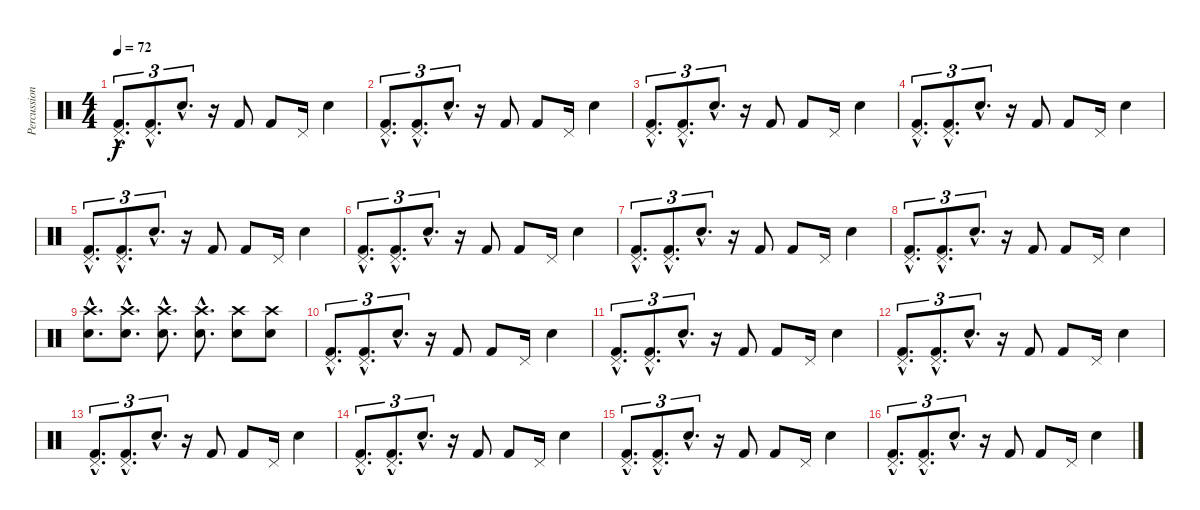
\track ("Percussion" "Percussion") {instrument percussion}
\staff {score}
\articulation defaults
\ts (4 4)
\tempo 72
\clef neutral
\ks c
("Kick (hit) 2"{hac} "Pedal Hi-Hat (hit)"{hac}).8{d tu (3 2) dy f} ("Kick (hit) 2"{hac} "Pedal Hi-Hat (hit)"{hac}).8{d tu (3 2)} "Snare (hit) 2"{hac}.8{d tu (3 2)} r.16 "Kick (hit) 2".8 "Kick (hit) 2".8 "Pedal Hi-Hat (hit)".16 "Snare (hit) 2".4 |
("Kick (hit) 2"{hac} "Pedal Hi-Hat (hit)"{hac}).8{d tu (3 2)} ("Kick (hit) 2"{hac} "Pedal Hi-Hat (hit)"{hac}).8{d tu (3 2)} "Snare (hit) 2"{hac}.8{d tu (3 2)} r.16 "Kick (hit) 2".8 "Kick (hit) 2".8 "Pedal Hi-Hat (hit)".16 "Snare (hit) 2".4 |
("Kick (hit) 2"{hac} "Pedal Hi-Hat (hit)"{hac}).8{d tu (3 2)} ("Kick (hit) 2"{hac} "Pedal Hi-Hat (hit)"{hac}).8{d tu (3 2)} "Snare (hit) 2"{hac}.8{d tu (3 2)} r.16 "Kick (hit) 2".8 "Kick (hit) 2".8 "Pedal Hi-Hat (hit)".16 "Snare (hit) 2".4 |
("Kick (hit) 2"{hac} "Pedal Hi-Hat (hit)"{hac}).8{d tu (3 2)} ("Kick (hit) 2"{hac} "Pedal Hi-Hat (hit)"{hac}).8{d tu (3 2)} "Snare (hit) 2"{hac}.8{d tu (3 2)} r.16 "Kick (hit) 2".8 "Kick (hit) 2".8 "Pedal Hi-Hat (hit)".16 "Snare (hit) 2".4 |
("Kick (hit) 2"{hac} "Pedal Hi-Hat (hit)"{hac}).8{d tu (3 2)} ("Kick (hit) 2"{hac} "Pedal Hi-Hat (hit)"{hac}).8{d tu (3 2)} "Snare (hit) 2"{hac}.8{d tu (3 2)} r.16 "Kick (hit) 2".8 "Kick (hit) 2".8 "Pedal Hi-Hat (hit)".16 "Snare (hit) 2".4 |
("Kick (hit) 2"{hac} "Pedal Hi-Hat (hit)"{hac}).8{d tu (3 2)} ("Kick (hit) 2"{hac} "Pedal Hi-Hat (hit)"{hac}).8{d tu (3 2)} "Snare (hit) 2"{hac}.8{d tu (3 2)} r.16 "Kick (hit) 2".8 "Kick (hit) 2".8 "Pedal Hi-Hat (hit)".16 "Snare (hit) 2".4 |
("Kick (hit) 2"{hac} "Pedal Hi-Hat (hit)"{hac}).8{d tu (3 2)} ("Kick (hit) 2"{hac} "Pedal Hi-Hat (hit)"{hac}).8{d tu (3 2)} "Snare (hit) 2"{hac}.8{d tu (3 2)} r.16 "Kick (hit) 2".8 "Kick (hit) 2".8 "Pedal Hi-Hat (hit)".16 "Snare (hit) 2".4 |
("Kick (hit) 2"{hac} "Pedal Hi-Hat (hit)"{hac}).8{d tu (3 2)} ("Kick (hit) 2"{hac} "Pedal Hi-Hat (hit)"{hac}).8{d tu (3 2)} "Snare (hit) 2"{hac}.8{d tu (3 2)} r.16 "Kick (hit) 2".8 "Kick (hit) 2".8 "Pedal Hi-Hat (hit)".16 "Snare (hit) 2".4 |
("Crash high (hit)"{hac} "Snare (hit) 2"{hac}).8{d} ("Crash high (hit)"{hac} "Snare (hit) 2"{hac}).8{d} ("Crash high (hit)"{hac} "Snare (hit) 2"{hac}).8{d} ("Crash high (hit)"{hac} "Snare (hit) 2"{hac}).8{d} ("Crash high (hit)" "Snare (hit) 2").8 ("Crash high (hit)" "Snare (hit) 2").8 |
("Kick (hit) 2"{hac} "Pedal Hi-Hat (hit)"{hac}).8{d tu (3 2)} ("Kick (hit) 2"{hac} "Pedal Hi-Hat (hit)"{hac}).8{d tu (3 2)} "Snare (hit) 2"{hac}.8{d tu (3 2)} r.16 "Kick (hit) 2".8 "Kick (hit) 2".8 "Pedal Hi-Hat (hit)".16 "Snare (hit) 2".4 |
("Kick (hit) 2"{hac} "Pedal Hi-Hat (hit)"{hac}).8{d tu (3 2)} ("Kick (hit) 2"{hac} "Pedal Hi-Hat (hit)"{hac}).8{d tu (3 2)} "Snare (hit) 2"{hac}.8{d tu (3 2)} r.16 "Kick (hit) 2".8 "Kick (hit) 2".8 "Pedal Hi-Hat (hit)".16 "Snare (hit) 2".4 |
("Kick (hit) 2"{hac} "Pedal Hi-Hat (hit)"{hac}).8{d tu (3 2)} ("Kick (hit) 2"{hac} "Pedal Hi-Hat (hit)"{hac}).8{d tu (3 2)} "Snare (hit) 2"{hac}.8{d tu (3 2)} r.16 "Kick (hit) 2".8 "Kick (hit) 2".8 "Pedal Hi-Hat (hit)".16 "Snare (hit) 2".4 |
("Kick (hit) 2"{hac} "Pedal Hi-Hat (hit)"{hac}).8{d tu (3 2)} ("Kick (hit) 2"{hac} "Pedal Hi-Hat (hit)"{hac}).8{d tu (3 2)} "Snare (hit) 2"{hac}.8{d tu (3 2)} r.16 "Kick (hit) 2".8 "Kick (hit) 2".8 "Pedal Hi-Hat (hit)".16 "Snare (hit) 2".4 |
("Kick (hit) 2"{hac} "Pedal Hi-Hat (hit)"{hac}).8{d tu (3 2)} ("Kick (hit) 2"{hac} "Pedal Hi-Hat (hit)"{hac}).8{d tu (3 2)} "Snare (hit) 2"{hac}.8{d tu (3 2)} r.16 "Kick (hit) 2".8 "Kick (hit) 2".8 "Pedal Hi-Hat (hit)".16 "Snare (hit) 2".4 |
("Kick (hit) 2"{hac} "Pedal Hi-Hat (hit)"{hac}).8{d tu (3 2)} ("Kick (hit) 2"{hac} "Pedal Hi-Hat (hit)"{hac}).8{d tu (3 2)} "Snare (hit) 2"{hac}.8{d tu (3 2)} r.16 "Kick (hit) 2".8 "Kick (hit) 2".8 "Pedal Hi-Hat (hit)".16 "Snare (hit) 2".4 |
("Kick (hit) 2"{hac} "Pedal Hi-Hat (hit)"{hac}).8{d tu (3 2)} ("Kick (hit) 2"{hac} "Pedal Hi-Hat (hit)"{hac}).8{d tu (3 2)} "Snare (hit) 2"{hac}.8{d tu (3 2)} r.16 "Kick (hit) 2".8 "Kick (hit) 2".8 "Pedal Hi-Hat (hit)".16 "Snare (hit) 2".4
